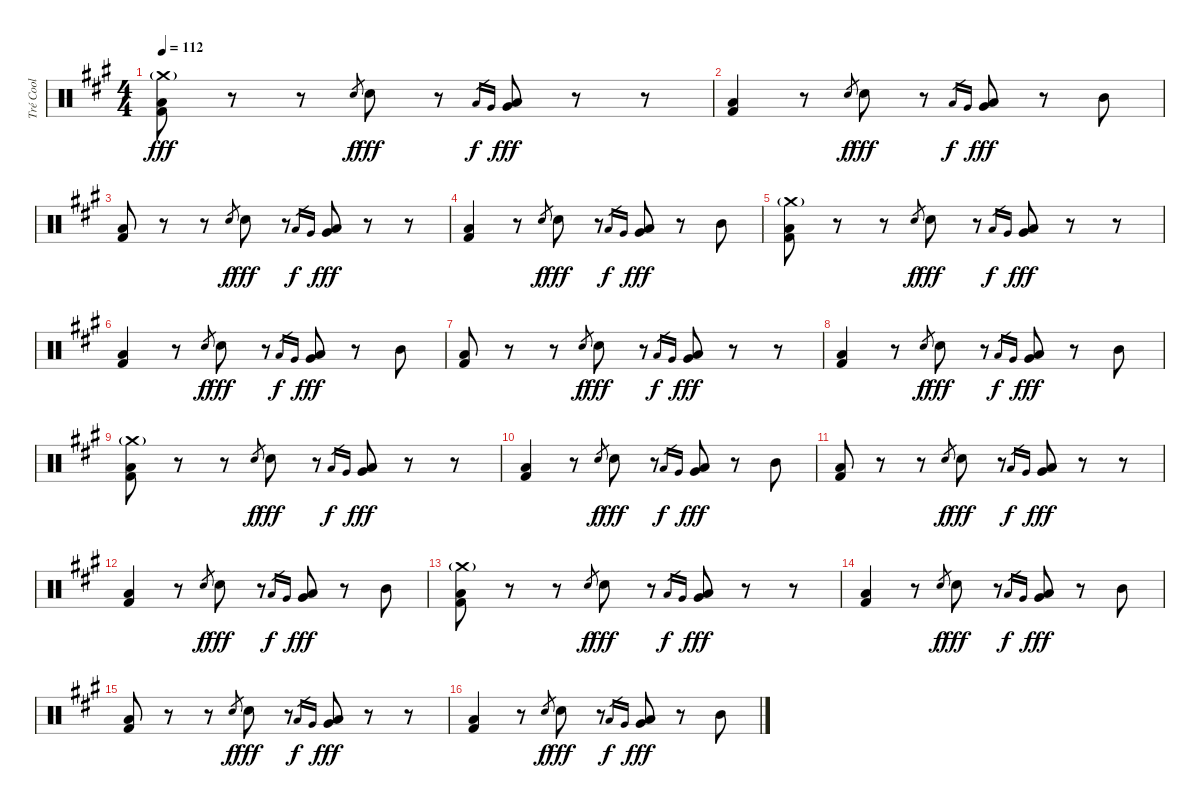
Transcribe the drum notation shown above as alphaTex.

\track ("Tré Cool" "Tré Cool") {instrument percussion}
\staff {score}
\articulation defaults
\ts (4 4)
\tempo 112
\clef neutral
\ks a
("Crash medium (hit)"{g} "Low Floor Tom (hit)" "Kick (hit) 2").8{dy fff} r.8 r.8 "Electric Snare (hit)".8{gr dy f} "Electric Snare (hit)".8{dy fff} r.8 "Low Floor Tom (hit)".16{gr dy f} "Very Low Tom (hit)".16{gr} ("Low Floor Tom (hit)" "Very Low Tom (hit)").8{dy fff} r.8 r.8 |
("Low Floor Tom (hit)" "Kick (hit) 2").4 r.8 "Electric Snare (hit)".8{gr dy f} "Electric Snare (hit)".8{dy fff} r.8 "Low Floor Tom (hit)".16{gr dy f} "Very Low Tom (hit)".16{gr} ("Low Floor Tom (hit)" "Very Low Tom (hit)").8{dy fff} r.8 "Mid Tom (hit)".8 |
("Low Floor Tom (hit)" "Kick (hit) 2").8 r.8 r.8 "Electric Snare (hit)".8{gr dy f} "Electric Snare (hit)".8{dy fff} r.8 "Low Floor Tom (hit)".16{gr dy f} "Very Low Tom (hit)".16{gr} ("Low Floor Tom (hit)" "Very Low Tom (hit)").8{dy fff} r.8 r.8 |
("Low Floor Tom (hit)" "Kick (hit) 2").4 r.8 "Electric Snare (hit)".8{gr dy f} "Electric Snare (hit)".8{dy fff} r.8 "Low Floor Tom (hit)".16{gr dy f} "Very Low Tom (hit)".16{gr} ("Low Floor Tom (hit)" "Very Low Tom (hit)").8{dy fff} r.8 "Mid Tom (hit)".8 |
("Crash medium (hit)"{g} "Low Floor Tom (hit)" "Kick (hit) 2").8 r.8 r.8 "Electric Snare (hit)".8{gr dy f} "Electric Snare (hit)".8{dy fff} r.8 "Low Floor Tom (hit)".16{gr dy f} "Very Low Tom (hit)".16{gr} ("Low Floor Tom (hit)" "Very Low Tom (hit)").8{dy fff} r.8 r.8 |
("Low Floor Tom (hit)" "Kick (hit) 2").4 r.8 "Electric Snare (hit)".8{gr dy f} "Electric Snare (hit)".8{dy fff} r.8 "Low Floor Tom (hit)".16{gr dy f} "Very Low Tom (hit)".16{gr} ("Low Floor Tom (hit)" "Very Low Tom (hit)").8{dy fff} r.8 "Mid Tom (hit)".8 |
("Low Floor Tom (hit)" "Kick (hit) 2").8 r.8 r.8 "Electric Snare (hit)".8{gr dy f} "Electric Snare (hit)".8{dy fff} r.8 "Low Floor Tom (hit)".16{gr dy f} "Very Low Tom (hit)".16{gr} ("Low Floor Tom (hit)" "Very Low Tom (hit)").8{dy fff} r.8 r.8 |
("Low Floor Tom (hit)" "Kick (hit) 2").4 r.8 "Electric Snare (hit)".8{gr dy f} "Electric Snare (hit)".8{dy fff} r.8 "Low Floor Tom (hit)".16{gr dy f} "Very Low Tom (hit)".16{gr} ("Low Floor Tom (hit)" "Very Low Tom (hit)").8{dy fff} r.8 "Mid Tom (hit)".8 |
("Crash medium (hit)"{g} "Low Floor Tom (hit)" "Kick (hit) 2").8 r.8 r.8 "Electric Snare (hit)".8{gr dy f} "Electric Snare (hit)".8{dy fff} r.8 "Low Floor Tom (hit)".16{gr dy f} "Very Low Tom (hit)".16{gr} ("Low Floor Tom (hit)" "Very Low Tom (hit)").8{dy fff} r.8 r.8 |
("Low Floor Tom (hit)" "Kick (hit) 2").4 r.8 "Electric Snare (hit)".8{gr dy f} "Electric Snare (hit)".8{dy fff} r.8 "Low Floor Tom (hit)".16{gr dy f} "Very Low Tom (hit)".16{gr} ("Low Floor Tom (hit)" "Very Low Tom (hit)").8{dy fff} r.8 "Mid Tom (hit)".8 |
("Low Floor Tom (hit)" "Kick (hit) 2").8 r.8 r.8 "Electric Snare (hit)".8{gr dy f} "Electric Snare (hit)".8{dy fff} r.8 "Low Floor Tom (hit)".16{gr dy f} "Very Low Tom (hit)".16{gr} ("Low Floor Tom (hit)" "Very Low Tom (hit)").8{dy fff} r.8 r.8 |
("Low Floor Tom (hit)" "Kick (hit) 2").4 r.8 "Electric Snare (hit)".8{gr dy f} "Electric Snare (hit)".8{dy fff} r.8 "Low Floor Tom (hit)".16{gr dy f} "Very Low Tom (hit)".16{gr} ("Low Floor Tom (hit)" "Very Low Tom (hit)").8{dy fff} r.8 "Mid Tom (hit)".8 |
("Crash medium (hit)"{g} "Low Floor Tom (hit)" "Kick (hit) 2").8 r.8 r.8 "Electric Snare (hit)".8{gr dy f} "Electric Snare (hit)".8{dy fff} r.8 "Low Floor Tom (hit)".16{gr dy f} "Very Low Tom (hit)".16{gr} ("Low Floor Tom (hit)" "Very Low Tom (hit)").8{dy fff} r.8 r.8 |
("Low Floor Tom (hit)" "Kick (hit) 2").4 r.8 "Electric Snare (hit)".8{gr dy f} "Electric Snare (hit)".8{dy fff} r.8 "Low Floor Tom (hit)".16{gr dy f} "Very Low Tom (hit)".16{gr} ("Low Floor Tom (hit)" "Very Low Tom (hit)").8{dy fff} r.8 "Mid Tom (hit)".8 |
("Low Floor Tom (hit)" "Kick (hit) 2").8 r.8 r.8 "Electric Snare (hit)".8{gr dy f} "Electric Snare (hit)".8{dy fff} r.8 "Low Floor Tom (hit)".16{gr dy f} "Very Low Tom (hit)".16{gr} ("Low Floor Tom (hit)" "Very Low Tom (hit)").8{dy fff} r.8 r.8 |
("Low Floor Tom (hit)" "Kick (hit) 2").4 r.8 "Electric Snare (hit)".8{gr dy f} "Electric Snare (hit)".8{dy fff} r.8 "Low Floor Tom (hit)".16{gr dy f} "Very Low Tom (hit)".16{gr} ("Low Floor Tom (hit)" "Very Low Tom (hit)").8{dy fff} r.8 "Mid Tom (hit)".8
